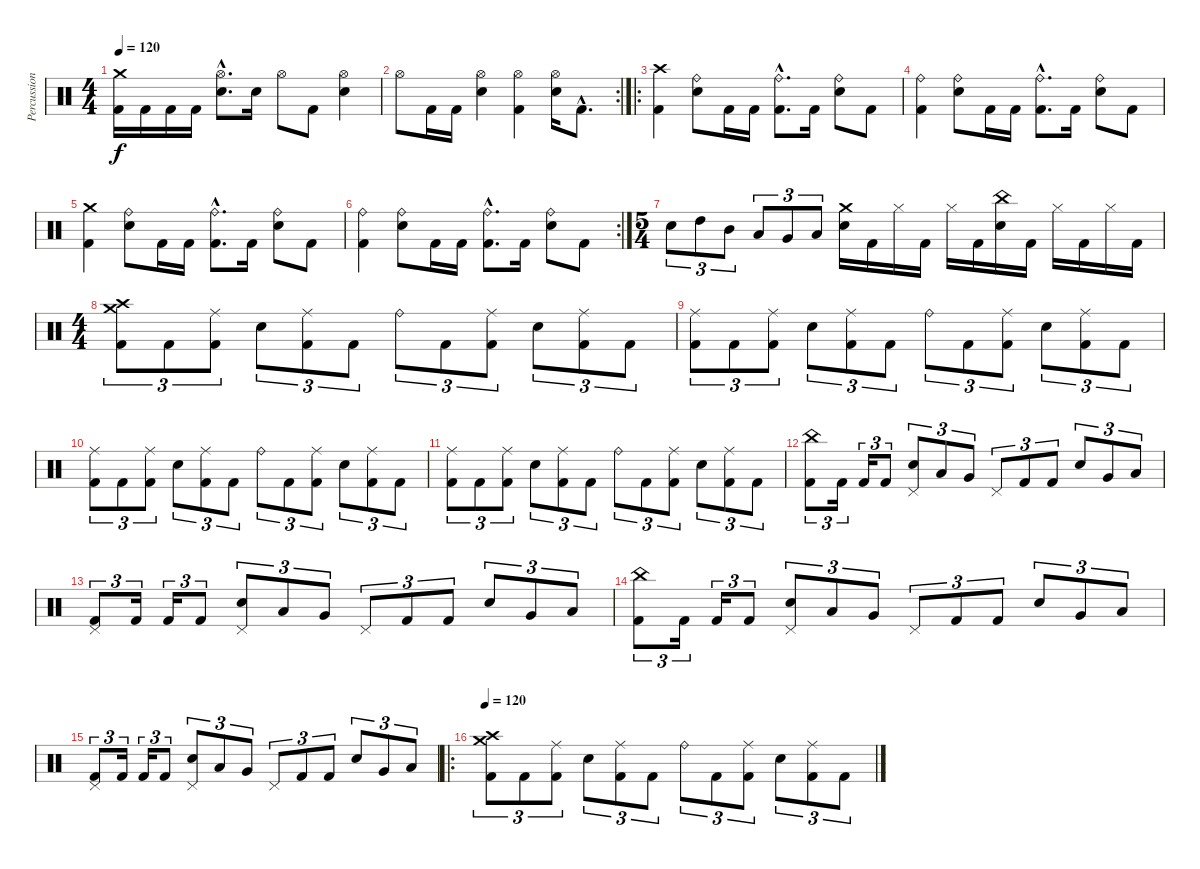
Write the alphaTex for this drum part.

\track ("Percussions" "Percussion") {instrument percussion}
\staff {score}
\articulation defaults
\ts (4 4)
\tempo 120
\clef neutral
\ks c
("Crash medium (hit)" "Kick (hit) 2").16{dy f} "Kick (hit) 2".16 "Kick (hit) 2".16 "Kick (hit) 2".16 ("Hi-Hat (open)"{hac} "Electric Snare (hit)"{hac}).8{d} "Electric Snare (hit)".16 "Hi-Hat (open)".8 "Kick (hit) 2".8 ("Hi-Hat (open)" "Electric Snare (hit)").4 |
\rc 2 "Hi-Hat (open)".8 "Kick (hit) 2".16 "Kick (hit) 2".16
("Hi-Hat (open)" "Electric Snare (hit)").4 ("Hi-Hat (open)" "Kick (hit) 2").4 ("Hi-Hat (open)" "Electric Snare (hit)").16 "Kick (hit) 2"{hac}.8{d} |
\ro
("Crash high (hit)" "Kick (hit) 2").4 ("Ride (bell)" "Electric Snare (hit)").8 "Kick (hit) 2".16 "Kick (hit) 2".16 ("Ride (bell)"{hac} "Kick (hit) 2"{hac}).8{d} "Kick (hit) 2".16 ("Ride (bell)" "Electric Snare (hit)").8 "Kick (hit) 2".8 |
("Ride (bell)" "Kick (hit) 2").4 ("Ride (bell)" "Electric Snare (hit)").8 "Kick (hit) 2".16 "Kick (hit) 2".16 ("Ride (bell)"{hac} "Kick (hit) 2"{hac}).8{d} "Kick (hit) 2".16 ("Ride (bell)" "Electric Snare (hit)").8 "Kick (hit) 2".8 |
("Crash medium (hit)" "Kick (hit) 2").4 ("Ride (bell)" "Electric Snare (hit)").8 "Kick (hit) 2".16 "Kick (hit) 2".16 ("Ride (bell)"{hac} "Kick (hit) 2"{hac}).8{d} "Kick (hit) 2".16 ("Ride (bell)" "Electric Snare (hit)").8 "Kick (hit) 2".8 |
\rc 2
("Ride (bell)" "Kick (hit) 2").4 ("Ride (bell)" "Electric Snare (hit)").8 "Kick (hit) 2".16 "Kick (hit) 2".16 ("Ride (bell)"{hac} "Kick (hit) 2"{hac}).8{d} "Kick (hit) 2".16 ("Ride (bell)" "Electric Snare (hit)").8 "Kick (hit) 2".8 |
\ts (5 4)
"Electric Snare (hit)".8{tu (3 2)} "High Tom (hit)".8{tu (3 2)} "Mid Tom (hit)".8{tu (3 2)} "Low Tom (hit)".8{tu (3 2)} "Very Low Tom (hit)".8{tu (3 2)} "Low Floor Tom (hit)".8{tu (3 2)} ("Crash medium (hit)" "Electric Snare (hit)").16 "Kick (hit) 2".16 "Hi-Hat (closed)".16 "Kick (hit) 2".16 "Hi-Hat (closed)".16 "Kick (hit) 2".16 ("China (hit)" "Electric Snare (hit)").16 "Kick (hit) 2".16 "Hi-Hat (closed)".16 "Kick (hit) 2".16 "Hi-Hat (closed)".16 "Kick (hit) 2".16 |
\ts (4 4)
("Crash medium (hit)" "Crash high (hit)" "Kick (hit) 2").8{tu (3 2)} "Kick (hit) 2".8{tu (3 2)} ("Ride (middle)" "Kick (hit) 2").8{tu (3 2)} "Electric Snare (hit)".8{tu (3 2)} ("Ride (middle)" "Kick (hit) 2").8{tu (3 2)} "Kick (hit) 2".8{tu (3 2)} "Ride (bell)".8{tu (3 2)} "Kick (hit) 2".8{tu (3 2)} ("Ride (middle)" "Kick (hit) 2").8{tu (3 2)} "Electric Snare (hit)".8{tu (3 2)} ("Ride (middle)" "Kick (hit) 2").8{tu (3 2)} "Kick (hit) 2".8{tu (3 2)} |
("Ride (middle)" "Kick (hit) 2").8{tu (3 2)} "Kick (hit) 2".8{tu (3 2)} ("Ride (middle)" "Kick (hit) 2").8{tu (3 2)} "Electric Snare (hit)".8{tu (3 2)} ("Ride (middle)" "Kick (hit) 2").8{tu (3 2)} "Kick (hit) 2".8{tu (3 2)} "Ride (bell)".8{tu (3 2)} "Kick (hit) 2".8{tu (3 2)} ("Ride (middle)" "Kick (hit) 2").8{tu (3 2)} "Electric Snare (hit)".8{tu (3 2)} ("Ride (middle)" "Kick (hit) 2").8{tu (3 2)} "Kick (hit) 2".8{tu (3 2)} |
("Ride (middle)" "Kick (hit) 2").8{tu (3 2)} "Kick (hit) 2".8{tu (3 2)} ("Ride (middle)" "Kick (hit) 2").8{tu (3 2)} "Electric Snare (hit)".8{tu (3 2)} ("Ride (middle)" "Kick (hit) 2").8{tu (3 2)} "Kick (hit) 2".8{tu (3 2)} "Ride (bell)".8{tu (3 2)} "Kick (hit) 2".8{tu (3 2)} ("Ride (middle)" "Kick (hit) 2").8{tu (3 2)} "Electric Snare (hit)".8{tu (3 2)} ("Ride (middle)" "Kick (hit) 2").8{tu (3 2)} "Kick (hit) 2".8{tu (3 2)} |
("Ride (middle)" "Kick (hit) 2").8{tu (3 2)} "Kick (hit) 2".8{tu (3 2)} ("Ride (middle)" "Kick (hit) 2").8{tu (3 2)} "Electric Snare (hit)".8{tu (3 2)} ("Ride (middle)" "Kick (hit) 2").8{tu (3 2)} "Kick (hit) 2".8{tu (3 2)} "Ride (bell)".8{tu (3 2)} "Kick (hit) 2".8{tu (3 2)} ("Ride (middle)" "Kick (hit) 2").8{tu (3 2)} "Electric Snare (hit)".8{tu (3 2)} ("Ride (middle)" "Kick (hit) 2").8{tu (3 2)} "Kick (hit) 2".8{tu (3 2)} |
("China (hit)" "Kick (hit) 2").8{tu (3 2)} "Kick (hit) 2".16{tu (3 2)} "Kick (hit) 2".16{tu (3 2)} "Kick (hit) 2".8{tu (3 2)} ("Pedal Hi-Hat (hit)" "Electric Snare (hit)").8{tu (3 2)} "Low Tom (hit)".8{tu (3 2)} "Very Low Tom (hit)".8{tu (3 2)} "Pedal Hi-Hat (hit)".8{tu (3 2)} "Kick (hit) 2".8{tu (3 2)} "Kick (hit) 2".8{tu (3 2)} "Electric Snare (hit)".8{tu (3 2)} "Very Low Tom (hit)".8{tu (3 2)} "Low Floor Tom (hit)".8{tu (3 2)} |
("Pedal Hi-Hat (hit)" "Kick (hit) 2").8{tu (3 2)} "Kick (hit) 2".16{tu (3 2)} "Kick (hit) 2".16{tu (3 2)} "Kick (hit) 2".8{tu (3 2)} ("Pedal Hi-Hat (hit)" "Electric Snare (hit)").8{tu (3 2)} "Low Tom (hit)".8{tu (3 2)} "Very Low Tom (hit)".8{tu (3 2)} "Pedal Hi-Hat (hit)".8{tu (3 2)} "Kick (hit) 2".8{tu (3 2)} "Kick (hit) 2".8{tu (3 2)} "Electric Snare (hit)".8{tu (3 2)} "Very Low Tom (hit)".8{tu (3 2)} "Low Floor Tom (hit)".8{tu (3 2)} |
("China (hit)" "Kick (hit) 2").8{tu (3 2)} "Kick (hit) 2".16{tu (3 2)} "Kick (hit) 2".16{tu (3 2)} "Kick (hit) 2".8{tu (3 2)} ("Pedal Hi-Hat (hit)" "Electric Snare (hit)").8{tu (3 2)} "Low Tom (hit)".8{tu (3 2)} "Very Low Tom (hit)".8{tu (3 2)} "Pedal Hi-Hat (hit)".8{tu (3 2)} "Kick (hit) 2".8{tu (3 2)} "Kick (hit) 2".8{tu (3 2)} "Electric Snare (hit)".8{tu (3 2)} "Very Low Tom (hit)".8{tu (3 2)} "Low Floor Tom (hit)".8{tu (3 2)} |
("Pedal Hi-Hat (hit)" "Kick (hit) 2").8{tu (3 2)} "Kick (hit) 2".16{tu (3 2)} "Kick (hit) 2".16{tu (3 2)} "Kick (hit) 2".8{tu (3 2)} ("Pedal Hi-Hat (hit)" "Electric Snare (hit)").8{tu (3 2)} "Low Tom (hit)".8{tu (3 2)} "Very Low Tom (hit)".8{tu (3 2)} "Pedal Hi-Hat (hit)".8{tu (3 2)} "Kick (hit) 2".8{tu (3 2)} "Kick (hit) 2".8{tu (3 2)} "Electric Snare (hit)".8{tu (3 2)} "Very Low Tom (hit)".8{tu (3 2)} "Low Floor Tom (hit)".8{tu (3 2)} |
\ro
\tempo 120
("Crash medium (hit)" "Crash high (hit)" "Kick (hit) 2").8{tu (3 2)} "Kick (hit) 2".8{tu (3 2)} ("Ride (middle)" "Kick (hit) 2").8{tu (3 2)} "Electric Snare (hit)".8{tu (3 2)} ("Ride (middle)" "Kick (hit) 2").8{tu (3 2)} "Kick (hit) 2".8{tu (3 2)} "Ride (bell)".8{tu (3 2)} "Kick (hit) 2".8{tu (3 2)} ("Ride (middle)" "Kick (hit) 2").8{tu (3 2)} "Electric Snare (hit)".8{tu (3 2)} ("Ride (middle)" "Kick (hit) 2").8{tu (3 2)} "Kick (hit) 2".8{tu (3 2)}
